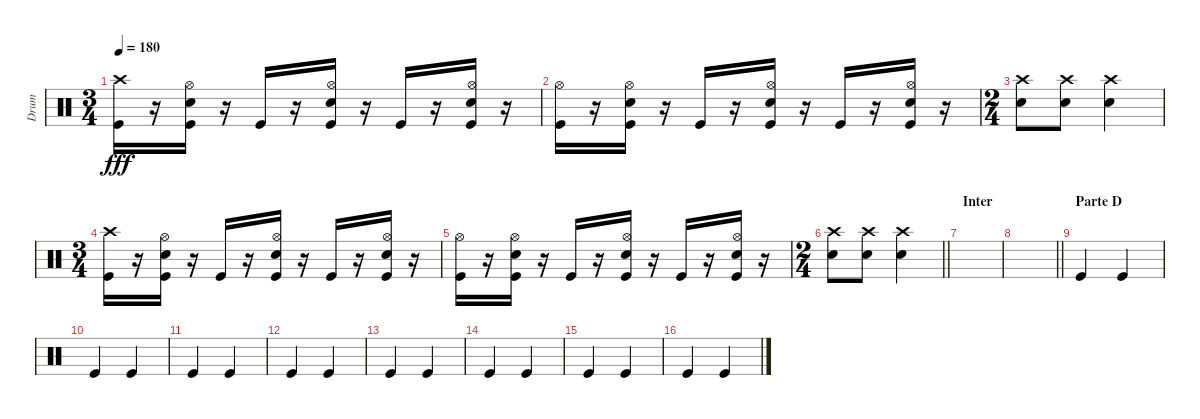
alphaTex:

\track ("Drum" "Drum") {instrument percussion}
\staff {score}
\articulation defaults
\ts (3 4)
\tempo 180
\clef neutral
\ks c
("Crash high (hit)" "Kick (hit)").16{dy fff} r.16 ("Hi-Hat (open)" "Snare (hit) 2" "Kick (hit)").16 r.16 "Kick (hit)".16 r.16 ("Hi-Hat (open)" "Snare (hit) 2" "Kick (hit)").16 r.16 "Kick (hit)".16 r.16 ("Hi-Hat (open)" "Snare (hit) 2" "Kick (hit)").16 r.16 |
("Hi-Hat (open)" "Kick (hit)").16 r.16 ("Hi-Hat (open)" "Snare (hit) 2" "Kick (hit)").16 r.16 "Kick (hit)".16 r.16 ("Hi-Hat (open)" "Snare (hit) 2" "Kick (hit)").16 r.16 "Kick (hit)".16 r.16 ("Hi-Hat (open)" "Snare (hit) 2" "Kick (hit)").16 r.16 |
\ts (2 4)
("Crash high (hit)" "Snare (hit) 2").8 ("Crash high (hit)" "Snare (hit) 2").8 ("Crash high (hit)" "Snare (hit) 2").4 |
\ts (3 4)
("Crash high (hit)" "Kick (hit)").16 r.16 ("Hi-Hat (open)" "Snare (hit) 2" "Kick (hit)").16 r.16 "Kick (hit)".16 r.16 ("Hi-Hat (open)" "Snare (hit) 2" "Kick (hit)").16 r.16 "Kick (hit)".16 r.16 ("Hi-Hat (open)" "Snare (hit) 2" "Kick (hit)").16 r.16 |
("Hi-Hat (open)" "Kick (hit)").16 r.16 ("Hi-Hat (open)" "Snare (hit) 2" "Kick (hit)").16 r.16 "Kick (hit)".16 r.16 ("Hi-Hat (open)" "Snare (hit) 2" "Kick (hit)").16 r.16 "Kick (hit)".16 r.16 ("Hi-Hat (open)" "Snare (hit) 2" "Kick (hit)").16 r.16 |
\ts (2 4)
\barLineRight lightlight
("Crash high (hit)" "Snare (hit) 2").8 ("Crash high (hit)" "Snare (hit) 2").8 ("Crash high (hit)" "Snare (hit) 2").4 |
\section ("" "Inter")
|
\barLineRight lightlight
|
\section ("" "Parte D")
"Kick (hit)".4 "Kick (hit)".4 |
"Kick (hit)".4 "Kick (hit)".4 |
"Kick (hit)".4 "Kick (hit)".4 |
"Kick (hit)".4 "Kick (hit)".4 |
"Kick (hit)".4 "Kick (hit)".4 |
"Kick (hit)".4 "Kick (hit)".4 |
"Kick (hit)".4 "Kick (hit)".4 |
"Kick (hit)".4 "Kick (hit)".4
